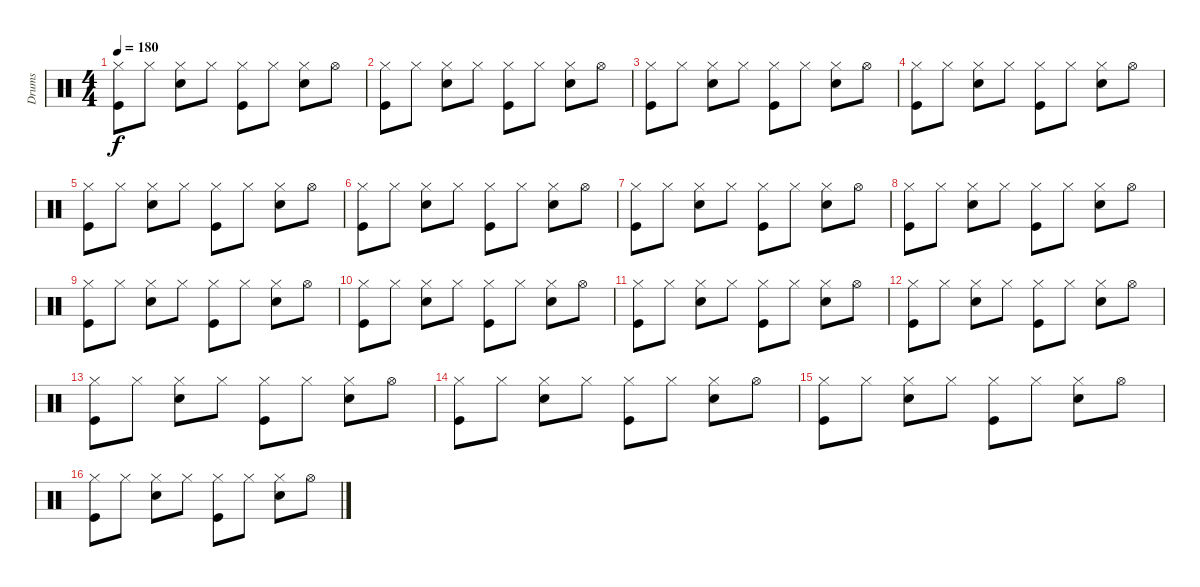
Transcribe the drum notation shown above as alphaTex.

\track ("Drums" "Drums") {instrument percussion}
\staff {score}
\articulation defaults
\ts (4 4)
\tempo 180
\clef neutral
\ks c
("Kick (hit)" "Hi-Hat (closed)").8{dy f} "Hi-Hat (closed)".8 ("Snare (hit) 2" "Hi-Hat (closed)").8 "Hi-Hat (closed)".8 ("Kick (hit)" "Hi-Hat (closed)").8 "Hi-Hat (closed)".8 ("Snare (hit) 2" "Hi-Hat (closed)").8 "Hi-Hat (open)".8 |
("Kick (hit)" "Hi-Hat (closed)").8 "Hi-Hat (closed)".8 ("Snare (hit) 2" "Hi-Hat (closed)").8 "Hi-Hat (closed)".8 ("Kick (hit)" "Hi-Hat (closed)").8 "Hi-Hat (closed)".8 ("Snare (hit) 2" "Hi-Hat (closed)").8 "Hi-Hat (open)".8 |
("Kick (hit)" "Hi-Hat (closed)").8 "Hi-Hat (closed)".8 ("Snare (hit) 2" "Hi-Hat (closed)").8 "Hi-Hat (closed)".8 ("Kick (hit)" "Hi-Hat (closed)").8 "Hi-Hat (closed)".8 ("Snare (hit) 2" "Hi-Hat (closed)").8 "Hi-Hat (open)".8 |
("Kick (hit)" "Hi-Hat (closed)").8 "Hi-Hat (closed)".8 ("Snare (hit) 2" "Hi-Hat (closed)").8 "Hi-Hat (closed)".8 ("Kick (hit)" "Hi-Hat (closed)").8 "Hi-Hat (closed)".8 ("Snare (hit) 2" "Hi-Hat (closed)").8 "Hi-Hat (open)".8 |
("Kick (hit)" "Hi-Hat (closed)").8 "Hi-Hat (closed)".8 ("Snare (hit) 2" "Hi-Hat (closed)").8 "Hi-Hat (closed)".8 ("Kick (hit)" "Hi-Hat (closed)").8 "Hi-Hat (closed)".8 ("Snare (hit) 2" "Hi-Hat (closed)").8 "Hi-Hat (open)".8 |
("Kick (hit)" "Hi-Hat (closed)").8 "Hi-Hat (closed)".8 ("Snare (hit) 2" "Hi-Hat (closed)").8 "Hi-Hat (closed)".8 ("Kick (hit)" "Hi-Hat (closed)").8 "Hi-Hat (closed)".8 ("Snare (hit) 2" "Hi-Hat (closed)").8 "Hi-Hat (open)".8 |
("Kick (hit)" "Hi-Hat (closed)").8 "Hi-Hat (closed)".8 ("Snare (hit) 2" "Hi-Hat (closed)").8 "Hi-Hat (closed)".8 ("Kick (hit)" "Hi-Hat (closed)").8 "Hi-Hat (closed)".8 ("Snare (hit) 2" "Hi-Hat (closed)").8 "Hi-Hat (open)".8 |
("Kick (hit)" "Hi-Hat (closed)").8 "Hi-Hat (closed)".8 ("Snare (hit) 2" "Hi-Hat (closed)").8 "Hi-Hat (closed)".8 ("Kick (hit)" "Hi-Hat (closed)").8 "Hi-Hat (closed)".8 ("Snare (hit) 2" "Hi-Hat (closed)").8 "Hi-Hat (open)".8 |
("Kick (hit)" "Hi-Hat (closed)").8 "Hi-Hat (closed)".8 ("Snare (hit) 2" "Hi-Hat (closed)").8 "Hi-Hat (closed)".8 ("Kick (hit)" "Hi-Hat (closed)").8 "Hi-Hat (closed)".8 ("Snare (hit) 2" "Hi-Hat (closed)").8 "Hi-Hat (open)".8 |
("Kick (hit)" "Hi-Hat (closed)").8 "Hi-Hat (closed)".8 ("Snare (hit) 2" "Hi-Hat (closed)").8 "Hi-Hat (closed)".8 ("Kick (hit)" "Hi-Hat (closed)").8 "Hi-Hat (closed)".8 ("Snare (hit) 2" "Hi-Hat (closed)").8 "Hi-Hat (open)".8 |
("Kick (hit)" "Hi-Hat (closed)").8 "Hi-Hat (closed)".8 ("Snare (hit) 2" "Hi-Hat (closed)").8 "Hi-Hat (closed)".8 ("Kick (hit)" "Hi-Hat (closed)").8 "Hi-Hat (closed)".8 ("Snare (hit) 2" "Hi-Hat (closed)").8 "Hi-Hat (open)".8 |
("Kick (hit)" "Hi-Hat (closed)").8 "Hi-Hat (closed)".8 ("Snare (hit) 2" "Hi-Hat (closed)").8 "Hi-Hat (closed)".8 ("Kick (hit)" "Hi-Hat (closed)").8 "Hi-Hat (closed)".8 ("Snare (hit) 2" "Hi-Hat (closed)").8 "Hi-Hat (open)".8 |
("Kick (hit)" "Hi-Hat (closed)").8 "Hi-Hat (closed)".8 ("Snare (hit) 2" "Hi-Hat (closed)").8 "Hi-Hat (closed)".8 ("Kick (hit)" "Hi-Hat (closed)").8 "Hi-Hat (closed)".8 ("Snare (hit) 2" "Hi-Hat (closed)").8 "Hi-Hat (open)".8 |
("Kick (hit)" "Hi-Hat (closed)").8 "Hi-Hat (closed)".8 ("Snare (hit) 2" "Hi-Hat (closed)").8 "Hi-Hat (closed)".8 ("Kick (hit)" "Hi-Hat (closed)").8 "Hi-Hat (closed)".8 ("Snare (hit) 2" "Hi-Hat (closed)").8 "Hi-Hat (open)".8 |
("Kick (hit)" "Hi-Hat (closed)").8 "Hi-Hat (closed)".8 ("Snare (hit) 2" "Hi-Hat (closed)").8 "Hi-Hat (closed)".8 ("Kick (hit)" "Hi-Hat (closed)").8 "Hi-Hat (closed)".8 ("Snare (hit) 2" "Hi-Hat (closed)").8 "Hi-Hat (open)".8 |
("Kick (hit)" "Hi-Hat (closed)").8 "Hi-Hat (closed)".8 ("Snare (hit) 2" "Hi-Hat (closed)").8 "Hi-Hat (closed)".8 ("Kick (hit)" "Hi-Hat (closed)").8 "Hi-Hat (closed)".8 ("Snare (hit) 2" "Hi-Hat (closed)").8 "Hi-Hat (open)".8
